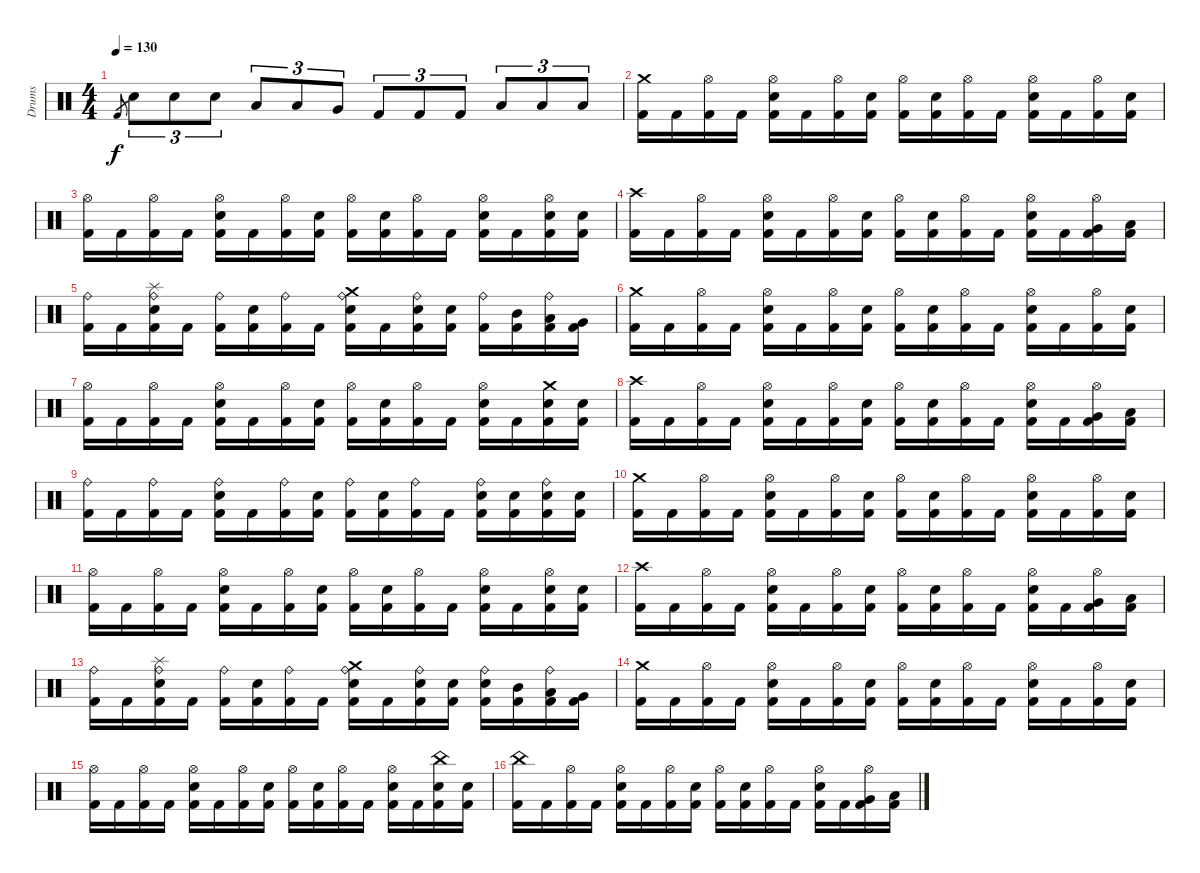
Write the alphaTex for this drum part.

\track ("Drums" "Drums") {instrument percussion}
\staff {score}
\articulation defaults
\ts (4 4)
\tempo 130
\clef neutral
\ks c "Kick (hit) 2".8{gr dy f} "Electric Snare (hit)".8{tu (3 2)} "Electric Snare (hit)".8{tu (3 2)} "Electric Snare (hit)".8{tu (3 2)} "Low Tom (hit)".8{tu (3 2)} "Low Tom (hit)".8{tu (3 2)} "Very Low Tom (hit)".8{tu (3 2)} "Kick (hit) 2".8{tu (3 2)} "Kick (hit) 2".8{tu (3 2)} "Kick (hit) 2".8{tu (3 2)} "Low Floor Tom (hit)".8{tu (3 2)} "Low Floor Tom (hit)".8{tu (3 2)} "Low Floor Tom (hit)".8{tu (3 2)}
|
("Crash medium (hit)" "Kick (hit) 2").16 "Kick (hit) 2".16 ("Hi-Hat (open)" "Kick (hit) 2").16 "Kick (hit) 2".16 ("Hi-Hat (open)" "Electric Snare (hit)" "Kick (hit) 2").16 "Kick (hit) 2".16 ("Hi-Hat (open)" "Kick (hit) 2").16 ("Electric Snare (hit)" "Kick (hit) 2").16 ("Hi-Hat (open)" "Kick (hit) 2").16 ("Electric Snare (hit)" "Kick (hit) 2").16 ("Hi-Hat (open)" "Kick (hit) 2").16 "Kick (hit) 2".16 ("Hi-Hat (open)" "Electric Snare (hit)" "Kick (hit) 2").16 "Kick (hit) 2".16 ("Hi-Hat (open)" "Kick (hit) 2").16 ("Electric Snare (hit)" "Kick (hit) 2").16 |
("Hi-Hat (open)" "Kick (hit) 2").16 "Kick (hit) 2".16 ("Hi-Hat (open)" "Kick (hit) 2").16 "Kick (hit) 2".16 ("Hi-Hat (open)" "Electric Snare (hit)" "Kick (hit) 2").16 "Kick (hit) 2".16 ("Hi-Hat (open)" "Kick (hit) 2").16 ("Electric Snare (hit)" "Kick (hit) 2").16 ("Hi-Hat (open)" "Kick (hit) 2").16 ("Electric Snare (hit)" "Kick (hit) 2").16 ("Hi-Hat (open)" "Kick (hit) 2").16 "Kick (hit) 2".16 ("Hi-Hat (open)" "Electric Snare (hit)" "Kick (hit) 2").16 "Kick (hit) 2".16 ("Hi-Hat (open)" "Electric Snare (hit)" "Kick (hit) 2").16 ("Electric Snare (hit)" "Kick (hit) 2").16 |
("Crash high (hit)" "Kick (hit) 2").16 "Kick (hit) 2".16 ("Hi-Hat (open)" "Kick (hit) 2").16 "Kick (hit) 2".16 ("Hi-Hat (open)" "Electric Snare (hit)" "Kick (hit) 2").16 "Kick (hit) 2".16 ("Hi-Hat (open)" "Kick (hit) 2").16 ("Electric Snare (hit)" "Kick (hit) 2").16 ("Hi-Hat (open)" "Kick (hit) 2").16 ("Electric Snare (hit)" "Kick (hit) 2").16 ("Hi-Hat (open)" "Kick (hit) 2").16 "Kick (hit) 2".16 ("Hi-Hat (open)" "Electric Snare (hit)" "Kick (hit) 2").16 "Kick (hit) 2".16 ("Hi-Hat (open)" "Very Low Tom (hit)" "Kick (hit) 2").16 ("Low Floor Tom (hit)" "Kick (hit) 2").16 |
("Ride (bell)" "Kick (hit) 2").16 "Kick (hit) 2".16 ("Ride (bell)" "Electric Snare (hit)" "Splash (hit)" "Kick (hit) 2").16 "Kick (hit) 2".16 ("Ride (bell)" "Kick (hit) 2").16 ("Electric Snare (hit)" "Kick (hit) 2").16 ("Ride (bell)" "Kick (hit) 2").16 "Kick (hit) 2".16 ("Ride (bell)" "Electric Snare (hit)" "Crash medium (hit)" "Kick (hit) 2").16 "Kick (hit) 2".16 ("Ride (bell)" "Electric Snare (hit)" "Kick (hit) 2").16 ("Electric Snare (hit)" "Kick (hit) 2").16 ("Ride (bell)" "Kick (hit) 2").16 ("Mid Tom (hit)" "Kick (hit) 2").16 ("Ride (bell)" "Low Tom (hit)" "Kick (hit) 2").16 ("Very Low Tom (hit)" "Kick (hit) 2").16 |
("Crash medium (hit)" "Kick (hit) 2").16 "Kick (hit) 2".16 ("Hi-Hat (open)" "Kick (hit) 2").16 "Kick (hit) 2".16 ("Hi-Hat (open)" "Electric Snare (hit)" "Kick (hit) 2").16 "Kick (hit) 2".16 ("Hi-Hat (open)" "Kick (hit) 2").16 ("Electric Snare (hit)" "Kick (hit) 2").16 ("Hi-Hat (open)" "Kick (hit) 2").16 ("Electric Snare (hit)" "Kick (hit) 2").16 ("Hi-Hat (open)" "Kick (hit) 2").16 "Kick (hit) 2".16 ("Hi-Hat (open)" "Electric Snare (hit)" "Kick (hit) 2").16 "Kick (hit) 2".16 ("Hi-Hat (open)" "Kick (hit) 2").16 ("Electric Snare (hit)" "Kick (hit) 2").16 |
("Hi-Hat (open)" "Kick (hit) 2").16 "Kick (hit) 2".16 ("Hi-Hat (open)" "Kick (hit) 2").16 "Kick (hit) 2".16 ("Hi-Hat (open)" "Electric Snare (hit)" "Kick (hit) 2").16 "Kick (hit) 2".16 ("Hi-Hat (open)" "Kick (hit) 2").16 ("Electric Snare (hit)" "Kick (hit) 2").16 ("Hi-Hat (open)" "Kick (hit) 2").16 ("Electric Snare (hit)" "Kick (hit) 2").16 ("Hi-Hat (open)" "Kick (hit) 2").16 "Kick (hit) 2".16 ("Hi-Hat (open)" "Electric Snare (hit)" "Kick (hit) 2").16 "Kick (hit) 2".16 ("Crash medium (hit)" "Electric Snare (hit)" "Kick (hit) 2").16 ("Electric Snare (hit)" "Kick (hit) 2").16 |
("Crash high (hit)" "Kick (hit) 2").16 "Kick (hit) 2".16 ("Hi-Hat (open)" "Kick (hit) 2").16 "Kick (hit) 2".16 ("Hi-Hat (open)" "Electric Snare (hit)" "Kick (hit) 2").16 "Kick (hit) 2".16 ("Hi-Hat (open)" "Kick (hit) 2").16 ("Electric Snare (hit)" "Kick (hit) 2").16 ("Hi-Hat (open)" "Kick (hit) 2").16 ("Electric Snare (hit)" "Kick (hit) 2").16 ("Hi-Hat (open)" "Kick (hit) 2").16 "Kick (hit) 2".16 ("Hi-Hat (open)" "Electric Snare (hit)" "Kick (hit) 2").16 "Kick (hit) 2".16 ("Hi-Hat (open)" "Very Low Tom (hit)" "Kick (hit) 2").16 ("Low Floor Tom (hit)" "Kick (hit) 2").16 |
("Ride (bell)" "Kick (hit) 2").16 "Kick (hit) 2".16 ("Ride (bell)" "Kick (hit) 2").16 "Kick (hit) 2".16 ("Ride (bell)" "Electric Snare (hit)" "Kick (hit) 2").16 "Kick (hit) 2".16 ("Ride (bell)" "Kick (hit) 2").16 ("Electric Snare (hit)" "Kick (hit) 2").16 ("Ride (bell)" "Kick (hit) 2").16 ("Electric Snare (hit)" "Kick (hit) 2").16 ("Ride (bell)" "Kick (hit) 2").16 "Kick (hit) 2".16 ("Ride (bell)" "Electric Snare (hit)" "Kick (hit) 2").16 ("Electric Snare (hit)" "Kick (hit) 2").16 ("Ride (bell)" "Electric Snare (hit)" "Kick (hit) 2").16 ("Electric Snare (hit)" "Kick (hit) 2").16 |
("Crash medium (hit)" "Kick (hit) 2").16 "Kick (hit) 2".16 ("Hi-Hat (open)" "Kick (hit) 2").16 "Kick (hit) 2".16 ("Hi-Hat (open)" "Electric Snare (hit)" "Kick (hit) 2").16 "Kick (hit) 2".16 ("Hi-Hat (open)" "Kick (hit) 2").16 ("Electric Snare (hit)" "Kick (hit) 2").16 ("Hi-Hat (open)" "Kick (hit) 2").16 ("Electric Snare (hit)" "Kick (hit) 2").16 ("Hi-Hat (open)" "Kick (hit) 2").16 "Kick (hit) 2".16 ("Hi-Hat (open)" "Electric Snare (hit)" "Kick (hit) 2").16 "Kick (hit) 2".16 ("Hi-Hat (open)" "Kick (hit) 2").16 ("Electric Snare (hit)" "Kick (hit) 2").16 |
("Hi-Hat (open)" "Kick (hit) 2").16 "Kick (hit) 2".16 ("Hi-Hat (open)" "Kick (hit) 2").16 "Kick (hit) 2".16 ("Hi-Hat (open)" "Electric Snare (hit)" "Kick (hit) 2").16 "Kick (hit) 2".16 ("Hi-Hat (open)" "Kick (hit) 2").16 ("Electric Snare (hit)" "Kick (hit) 2").16 ("Hi-Hat (open)" "Kick (hit) 2").16 ("Electric Snare (hit)" "Kick (hit) 2").16 ("Hi-Hat (open)" "Kick (hit) 2").16 "Kick (hit) 2".16 ("Hi-Hat (open)" "Electric Snare (hit)" "Kick (hit) 2").16 "Kick (hit) 2".16 ("Hi-Hat (open)" "Electric Snare (hit)" "Kick (hit) 2").16 ("Electric Snare (hit)" "Kick (hit) 2").16 |
("Crash high (hit)" "Kick (hit) 2").16 "Kick (hit) 2".16 ("Hi-Hat (open)" "Kick (hit) 2").16 "Kick (hit) 2".16 ("Hi-Hat (open)" "Electric Snare (hit)" "Kick (hit) 2").16 "Kick (hit) 2".16 ("Hi-Hat (open)" "Kick (hit) 2").16 ("Electric Snare (hit)" "Kick (hit) 2").16 ("Hi-Hat (open)" "Kick (hit) 2").16 ("Electric Snare (hit)" "Kick (hit) 2").16 ("Hi-Hat (open)" "Kick (hit) 2").16 "Kick (hit) 2".16 ("Hi-Hat (open)" "Electric Snare (hit)" "Kick (hit) 2").16 "Kick (hit) 2".16 ("Hi-Hat (open)" "Very Low Tom (hit)" "Kick (hit) 2").16 ("Low Floor Tom (hit)" "Kick (hit) 2").16 |
("Ride (bell)" "Kick (hit) 2").16 "Kick (hit) 2".16 ("Ride (bell)" "Electric Snare (hit)" "Splash (hit)" "Kick (hit) 2").16 "Kick (hit) 2".16 ("Ride (bell)" "Kick (hit) 2").16 ("Electric Snare (hit)" "Kick (hit) 2").16 ("Ride (bell)" "Kick (hit) 2").16 "Kick (hit) 2".16 ("Ride (bell)" "Electric Snare (hit)" "Crash medium (hit)" "Kick (hit) 2").16 "Kick (hit) 2".16 ("Ride (bell)" "Electric Snare (hit)" "Kick (hit) 2").16 ("Electric Snare (hit)" "Kick (hit) 2").16 ("Ride (bell)" "Electric Snare (hit)" "Kick (hit) 2").16 ("Mid Tom (hit)" "Kick (hit) 2").16 ("Ride (bell)" "Low Tom (hit)" "Kick (hit) 2").16 ("Very Low Tom (hit)" "Kick (hit) 2").16 |
("Crash medium (hit)" "Kick (hit) 2").16 "Kick (hit) 2".16 ("Hi-Hat (open)" "Kick (hit) 2").16 "Kick (hit) 2".16 ("Hi-Hat (open)" "Electric Snare (hit)" "Kick (hit) 2").16 "Kick (hit) 2".16 ("Hi-Hat (open)" "Kick (hit) 2").16 ("Electric Snare (hit)" "Kick (hit) 2").16 ("Hi-Hat (open)" "Kick (hit) 2").16 ("Electric Snare (hit)" "Kick (hit) 2").16 ("Hi-Hat (open)" "Kick (hit) 2").16 "Kick (hit) 2".16 ("Hi-Hat (open)" "Electric Snare (hit)" "Kick (hit) 2").16 "Kick (hit) 2".16 ("Hi-Hat (open)" "Kick (hit) 2").16 ("Electric Snare (hit)" "Kick (hit) 2").16 |
("Hi-Hat (open)" "Kick (hit) 2").16 "Kick (hit) 2".16 ("Hi-Hat (open)" "Kick (hit) 2").16 "Kick (hit) 2".16 ("Hi-Hat (open)" "Electric Snare (hit)" "Kick (hit) 2").16 "Kick (hit) 2".16 ("Hi-Hat (open)" "Kick (hit) 2").16 ("Electric Snare (hit)" "Kick (hit) 2").16 ("Hi-Hat (open)" "Kick (hit) 2").16 ("Electric Snare (hit)" "Kick (hit) 2").16 ("Hi-Hat (open)" "Kick (hit) 2").16 "Kick (hit) 2".16 ("Hi-Hat (open)" "Electric Snare (hit)" "Kick (hit) 2").16 "Kick (hit) 2".16 ("China (hit)" "Electric Snare (hit)" "Kick (hit) 2").16 ("Electric Snare (hit)" "Kick (hit) 2").16 |
("China (hit)" "Kick (hit) 2").16 "Kick (hit) 2".16 ("Hi-Hat (open)" "Kick (hit) 2").16 "Kick (hit) 2".16 ("Hi-Hat (open)" "Electric Snare (hit)" "Kick (hit) 2").16 "Kick (hit) 2".16 ("Hi-Hat (open)" "Kick (hit) 2").16 ("Electric Snare (hit)" "Kick (hit) 2").16 ("Hi-Hat (open)" "Kick (hit) 2").16 ("Electric Snare (hit)" "Kick (hit) 2").16 ("Hi-Hat (open)" "Kick (hit) 2").16 "Kick (hit) 2".16 ("Hi-Hat (open)" "Electric Snare (hit)" "Kick (hit) 2").16 "Kick (hit) 2".16 ("Hi-Hat (open)" "Very Low Tom (hit)" "Kick (hit) 2").16 ("Low Floor Tom (hit)" "Kick (hit) 2").16
